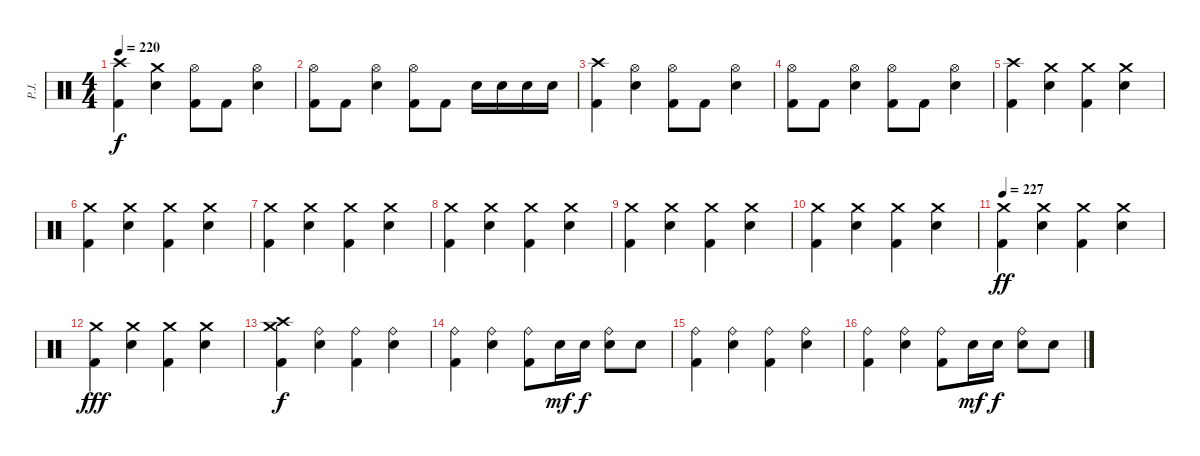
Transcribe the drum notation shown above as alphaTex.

\track ("P.J." "P.J.") {instrument percussion}
\staff {score}
\articulation defaults
\ts (4 4)
\tempo 220
\clef neutral
\ks c
("Crash high (hit)" "Kick (hit) 2").4{dy f} ("Crash medium (hit)" "Electric Snare (hit)").4 ("Hi-Hat (open)" "Kick (hit) 2").8 "Kick (hit) 2".8 ("Hi-Hat (open)" "Electric Snare (hit)").4 |
("Hi-Hat (open)" "Kick (hit) 2").8 "Kick (hit) 2".8 ("Hi-Hat (open)" "Electric Snare (hit)").4 ("Hi-Hat (open)" "Kick (hit) 2").8 "Kick (hit) 2".8 "Electric Snare (hit)".16 "Electric Snare (hit)".16 "Electric Snare (hit)".16 "Electric Snare (hit)".16 |
("Crash high (hit)" "Kick (hit) 2").4 ("Hi-Hat (open)" "Electric Snare (hit)").4 ("Hi-Hat (open)" "Kick (hit) 2").8 "Kick (hit) 2".8 ("Hi-Hat (open)" "Electric Snare (hit)").4 |
("Hi-Hat (open)" "Kick (hit) 2").8 "Kick (hit) 2".8 ("Hi-Hat (open)" "Electric Snare (hit)").4 ("Hi-Hat (open)" "Kick (hit) 2").8 "Kick (hit) 2".8 ("Hi-Hat (open)" "Electric Snare (hit)").4 |
("Crash high (hit)" "Kick (hit) 2").4 ("Crash medium (hit)" "Electric Snare (hit)").4 ("Crash medium (hit)" "Kick (hit) 2").4 ("Crash medium (hit)" "Electric Snare (hit)").4 |
("Crash medium (hit)" "Kick (hit) 2").4 ("Crash medium (hit)" "Electric Snare (hit)").4 ("Crash medium (hit)" "Kick (hit) 2").4 ("Crash medium (hit)" "Electric Snare (hit)").4 |
("Crash medium (hit)" "Kick (hit) 2").4 ("Crash medium (hit)" "Electric Snare (hit)").4 ("Crash medium (hit)" "Kick (hit) 2").4 ("Crash medium (hit)" "Electric Snare (hit)").4 |
("Crash medium (hit)" "Kick (hit) 2").4 ("Crash medium (hit)" "Electric Snare (hit)").4 ("Crash medium (hit)" "Kick (hit) 2").4 ("Crash medium (hit)" "Electric Snare (hit)").4 |
("Crash medium (hit)" "Kick (hit) 2").4 ("Crash medium (hit)" "Electric Snare (hit)").4 ("Crash medium (hit)" "Kick (hit) 2").4 ("Crash medium (hit)" "Electric Snare (hit)").4 |
("Crash medium (hit)" "Kick (hit) 2").4 ("Crash medium (hit)" "Electric Snare (hit)").4 ("Crash medium (hit)" "Kick (hit) 2").4 ("Crash medium (hit)" "Electric Snare (hit)").4 |
\tempo 227
("Crash medium (hit)" "Kick (hit) 2").4{dy ff} ("Crash medium (hit)" "Electric Snare (hit)").4 ("Crash medium (hit)" "Kick (hit) 2").4 ("Crash medium (hit)" "Electric Snare (hit)").4 |
("Crash medium (hit)" "Kick (hit) 2").4{dy fff} ("Crash medium (hit)" "Electric Snare (hit)").4 ("Crash medium (hit)" "Kick (hit) 2").4 ("Crash medium (hit)" "Electric Snare (hit)").4 |
("Crash high (hit)" "Crash medium (hit)" "Kick (hit) 2").4{dy f} ("Ride (bell)" "Electric Snare (hit)").4 ("Ride (bell)" "Kick (hit) 2").4 ("Ride (bell)" "Electric Snare (hit)").4 |
("Ride (bell)" "Kick (hit) 2").4 ("Ride (bell)" "Electric Snare (hit)").4 ("Ride (bell)" "Kick (hit) 2").8 "Electric Snare (hit)".16{dy mf} "Electric Snare (hit)".16{dy f} ("Ride (bell)" "Electric Snare (hit)").8 "Electric Snare (hit)".8 |
("Ride (bell)" "Kick (hit) 2").4 ("Ride (bell)" "Electric Snare (hit)").4 ("Ride (bell)" "Kick (hit) 2").4 ("Ride (bell)" "Electric Snare (hit)").4 |
("Ride (bell)" "Kick (hit) 2").4 ("Ride (bell)" "Electric Snare (hit)").4 ("Ride (bell)" "Kick (hit) 2").8 "Electric Snare (hit)".16{dy mf} "Electric Snare (hit)".16{dy f} ("Ride (bell)" "Electric Snare (hit)").8 "Electric Snare (hit)".8
